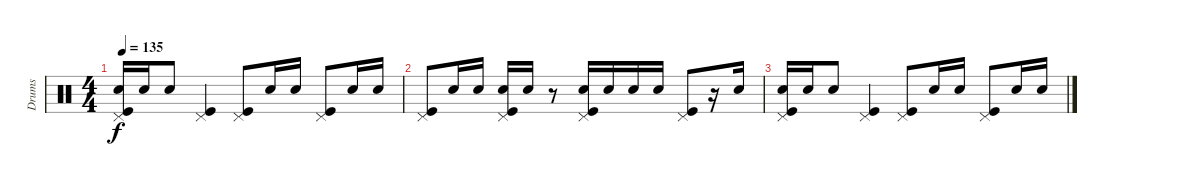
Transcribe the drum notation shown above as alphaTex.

\track ("Drums" "Drums") {instrument percussion}
\staff {score}
\articulation defaults
\ts (4 4)
\tempo 135
\clef neutral
\ks c
("Pedal Hi-Hat (hit)" "Electric Snare (hit)" "Kick (hit)").16{dy f} "Electric Snare (hit)".16 "Electric Snare (hit)".8 ("Pedal Hi-Hat (hit)" "Kick (hit)").4 ("Pedal Hi-Hat (hit)" "Kick (hit)").8 "Electric Snare (hit)".16 "Electric Snare (hit)".16 ("Pedal Hi-Hat (hit)" "Kick (hit)").8 "Electric Snare (hit)".16 "Electric Snare (hit)".16 |
("Pedal Hi-Hat (hit)" "Kick (hit)").8 "Electric Snare (hit)".16 "Electric Snare (hit)".16 ("Pedal Hi-Hat (hit)" "Electric Snare (hit)" "Kick (hit)").16 "Electric Snare (hit)".16 r.8 ("Pedal Hi-Hat (hit)" "Electric Snare (hit)" "Kick (hit)").16 "Electric Snare (hit)".16 "Electric Snare (hit)".16 "Electric Snare (hit)".16 ("Pedal Hi-Hat (hit)" "Kick (hit)").8 r.16 "Electric Snare (hit)".16 |
("Pedal Hi-Hat (hit)" "Electric Snare (hit)" "Kick (hit)").16 "Electric Snare (hit)".16 "Electric Snare (hit)".8 ("Pedal Hi-Hat (hit)" "Kick (hit)").4 ("Pedal Hi-Hat (hit)" "Kick (hit)").8 "Electric Snare (hit)".16 "Electric Snare (hit)".16 ("Pedal Hi-Hat (hit)" "Kick (hit)").8 "Electric Snare (hit)".16 "Electric Snare (hit)".16
